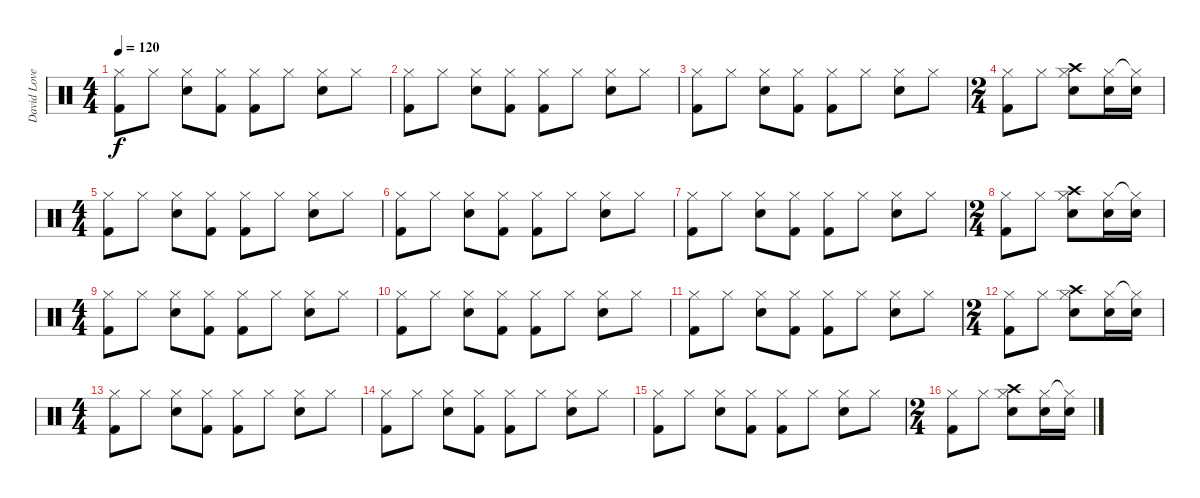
\track ("David Lovering" "David Love") {instrument percussion}
\staff {score}
\articulation defaults
\ts (4 4)
\tempo 120
\clef neutral
\ks c
("Hi-Hat (closed)" "Kick (hit) 2").8{dy f} "Hi-Hat (closed)".8 ("Hi-Hat (closed)" "Snare (hit) 2").8 ("Hi-Hat (closed)" "Kick (hit) 2").8 ("Hi-Hat (closed)" "Kick (hit) 2").8 "Hi-Hat (closed)".8 ("Hi-Hat (closed)" "Snare (hit) 2").8 "Hi-Hat (closed)".8 |
("Hi-Hat (closed)" "Kick (hit) 2").8 "Hi-Hat (closed)".8 ("Hi-Hat (closed)" "Snare (hit) 2").8 ("Hi-Hat (closed)" "Kick (hit) 2").8 ("Hi-Hat (closed)" "Kick (hit) 2").8 "Hi-Hat (closed)".8 ("Hi-Hat (closed)" "Snare (hit) 2").8 "Hi-Hat (closed)".8 |
("Hi-Hat (closed)" "Kick (hit) 2").8 "Hi-Hat (closed)".8 ("Hi-Hat (closed)" "Snare (hit) 2").8 ("Hi-Hat (closed)" "Kick (hit) 2").8 ("Hi-Hat (closed)" "Kick (hit) 2").8 "Hi-Hat (closed)".8 ("Hi-Hat (closed)" "Snare (hit) 2").8 "Hi-Hat (closed)".8 |
\ts (2 4)
("Hi-Hat (closed)" "Kick (hit) 2").8 "Hi-Hat (closed)".8 ("Hi-Hat (closed)" "Crash high (hit)" "Snare (hit) 2").8 ("Hi-Hat (closed)" "Snare (hit) 2").16 ("Hi-Hat (closed)"{t} "Snare (hit) 2").16 |
\ts (4 4)
("Hi-Hat (closed)" "Kick (hit) 2").8 "Hi-Hat (closed)".8 ("Hi-Hat (closed)" "Snare (hit) 2").8 ("Hi-Hat (closed)" "Kick (hit) 2").8 ("Hi-Hat (closed)" "Kick (hit) 2").8 "Hi-Hat (closed)".8 ("Hi-Hat (closed)" "Snare (hit) 2").8 "Hi-Hat (closed)".8 |
("Hi-Hat (closed)" "Kick (hit) 2").8 "Hi-Hat (closed)".8 ("Hi-Hat (closed)" "Snare (hit) 2").8 ("Hi-Hat (closed)" "Kick (hit) 2").8 ("Hi-Hat (closed)" "Kick (hit) 2").8 "Hi-Hat (closed)".8 ("Hi-Hat (closed)" "Snare (hit) 2").8 "Hi-Hat (closed)".8 |
("Hi-Hat (closed)" "Kick (hit) 2").8 "Hi-Hat (closed)".8 ("Hi-Hat (closed)" "Snare (hit) 2").8 ("Hi-Hat (closed)" "Kick (hit) 2").8 ("Hi-Hat (closed)" "Kick (hit) 2").8 "Hi-Hat (closed)".8 ("Hi-Hat (closed)" "Snare (hit) 2").8 "Hi-Hat (closed)".8 |
\ts (2 4)
("Hi-Hat (closed)" "Kick (hit) 2").8 "Hi-Hat (closed)".8 ("Hi-Hat (closed)" "Crash high (hit)" "Snare (hit) 2").8 ("Hi-Hat (closed)" "Snare (hit) 2").16 ("Hi-Hat (closed)"{t} "Snare (hit) 2").16 |
\ts (4 4)
("Hi-Hat (closed)" "Kick (hit) 2").8 "Hi-Hat (closed)".8 ("Hi-Hat (closed)" "Snare (hit) 2").8 ("Hi-Hat (closed)" "Kick (hit) 2").8 ("Hi-Hat (closed)" "Kick (hit) 2").8 "Hi-Hat (closed)".8 ("Hi-Hat (closed)" "Snare (hit) 2").8 "Hi-Hat (closed)".8 |
("Hi-Hat (closed)" "Kick (hit) 2").8 "Hi-Hat (closed)".8 ("Hi-Hat (closed)" "Snare (hit) 2").8 ("Hi-Hat (closed)" "Kick (hit) 2").8 ("Hi-Hat (closed)" "Kick (hit) 2").8 "Hi-Hat (closed)".8 ("Hi-Hat (closed)" "Snare (hit) 2").8 "Hi-Hat (closed)".8 |
("Hi-Hat (closed)" "Kick (hit) 2").8 "Hi-Hat (closed)".8 ("Hi-Hat (closed)" "Snare (hit) 2").8 ("Hi-Hat (closed)" "Kick (hit) 2").8 ("Hi-Hat (closed)" "Kick (hit) 2").8 "Hi-Hat (closed)".8 ("Hi-Hat (closed)" "Snare (hit) 2").8 "Hi-Hat (closed)".8 |
\ts (2 4)
("Hi-Hat (closed)" "Kick (hit) 2").8 "Hi-Hat (closed)".8 ("Hi-Hat (closed)" "Crash high (hit)" "Snare (hit) 2").8 ("Hi-Hat (closed)" "Snare (hit) 2").16 ("Hi-Hat (closed)"{t} "Snare (hit) 2").16 |
\ts (4 4)
("Hi-Hat (closed)" "Kick (hit) 2").8 "Hi-Hat (closed)".8 ("Hi-Hat (closed)" "Snare (hit) 2").8 ("Hi-Hat (closed)" "Kick (hit) 2").8 ("Hi-Hat (closed)" "Kick (hit) 2").8 "Hi-Hat (closed)".8 ("Hi-Hat (closed)" "Snare (hit) 2").8 "Hi-Hat (closed)".8 |
("Hi-Hat (closed)" "Kick (hit) 2").8 "Hi-Hat (closed)".8 ("Hi-Hat (closed)" "Snare (hit) 2").8 ("Hi-Hat (closed)" "Kick (hit) 2").8 ("Hi-Hat (closed)" "Kick (hit) 2").8 "Hi-Hat (closed)".8 ("Hi-Hat (closed)" "Snare (hit) 2").8 "Hi-Hat (closed)".8 |
("Hi-Hat (closed)" "Kick (hit) 2").8 "Hi-Hat (closed)".8 ("Hi-Hat (closed)" "Snare (hit) 2").8 ("Hi-Hat (closed)" "Kick (hit) 2").8 ("Hi-Hat (closed)" "Kick (hit) 2").8 "Hi-Hat (closed)".8 ("Hi-Hat (closed)" "Snare (hit) 2").8 "Hi-Hat (closed)".8 |
\ts (2 4)
("Hi-Hat (closed)" "Kick (hit) 2").8 "Hi-Hat (closed)".8 ("Hi-Hat (closed)" "Crash high (hit)" "Snare (hit) 2").8 ("Hi-Hat (closed)" "Snare (hit) 2").16 ("Hi-Hat (closed)"{t} "Snare (hit) 2").16
